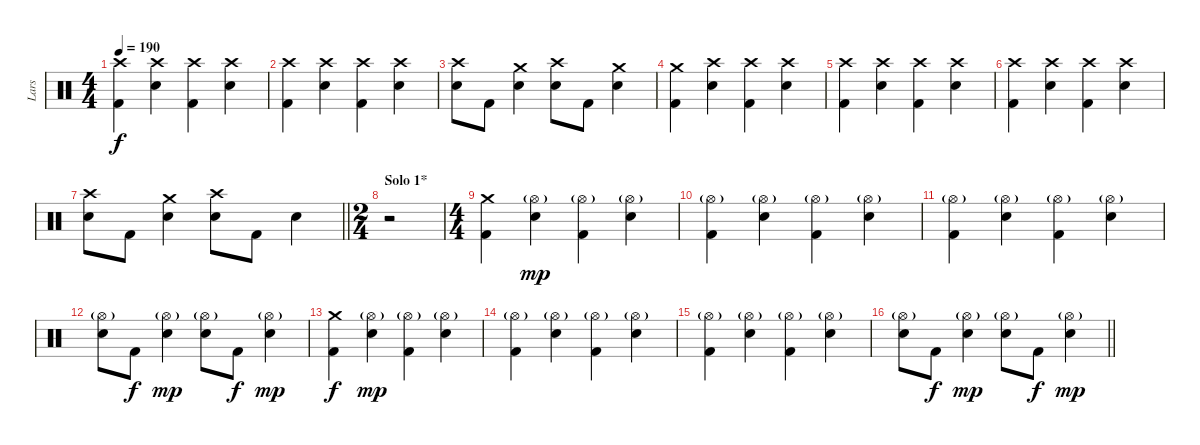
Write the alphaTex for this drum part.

\track ("Lars" "Lars") {instrument percussion}
\staff {score}
\articulation defaults
\ts (4 4)
\tempo 190
\clef neutral
\ks c
("Crash high (hit)" "Kick (hit) 2").4{dy f} ("Crash high (hit)" "Electric Snare (hit)").4 ("Crash high (hit)" "Kick (hit) 2").4 ("Crash high (hit)" "Electric Snare (hit)").4 |
("Crash high (hit)" "Kick (hit) 2").4 ("Crash high (hit)" "Electric Snare (hit)").4 ("Crash high (hit)" "Kick (hit) 2").4 ("Crash high (hit)" "Electric Snare (hit)").4 |
("Crash high (hit)" "Electric Snare (hit)").8 "Kick (hit) 2".8 ("Crash medium (hit)" "Electric Snare (hit)").4 ("Crash high (hit)" "Electric Snare (hit)").8 "Kick (hit) 2".8 ("Crash medium (hit)" "Electric Snare (hit)").4 |
("Crash medium (hit)" "Kick (hit) 2").4 ("Crash high (hit)" "Electric Snare (hit)").4 ("Crash high (hit)" "Kick (hit) 2").4 ("Crash high (hit)" "Electric Snare (hit)").4 |
("Crash high (hit)" "Kick (hit) 2").4 ("Crash high (hit)" "Electric Snare (hit)").4 ("Crash high (hit)" "Kick (hit) 2").4 ("Crash high (hit)" "Electric Snare (hit)").4 |
("Crash high (hit)" "Kick (hit) 2").4 ("Crash high (hit)" "Electric Snare (hit)").4 ("Crash high (hit)" "Kick (hit) 2").4 ("Crash high (hit)" "Electric Snare (hit)").4 |
\barLineRight lightlight
("Crash high (hit)" "Electric Snare (hit)").8 "Kick (hit) 2".8 ("Crash medium (hit)" "Electric Snare (hit)").4 ("Crash high (hit)" "Electric Snare (hit)").8 "Kick (hit) 2".8 "Electric Snare (hit)".4 |
\ts (2 4)
\section ("" "Solo 1*")
r.2 |
\ts (4 4)
("Crash medium (hit)" "Kick (hit) 2").4 ("Hi-Hat (open)"{g} "Electric Snare (hit)").4{dy mp} ("Hi-Hat (open)"{g} "Kick (hit) 2").4 ("Hi-Hat (open)"{g} "Electric Snare (hit)").4 |
("Hi-Hat (open)"{g} "Kick (hit) 2").4 ("Hi-Hat (open)"{g} "Electric Snare (hit)").4 ("Hi-Hat (open)"{g} "Kick (hit) 2").4 ("Hi-Hat (open)"{g} "Electric Snare (hit)").4 |
("Hi-Hat (open)"{g} "Kick (hit) 2").4 ("Hi-Hat (open)"{g} "Electric Snare (hit)").4 ("Hi-Hat (open)"{g} "Kick (hit) 2").4 ("Hi-Hat (open)"{g} "Electric Snare (hit)").4 |
("Hi-Hat (open)"{g} "Electric Snare (hit)").8 "Kick (hit) 2".8{dy f} ("Hi-Hat (open)"{g} "Electric Snare (hit)").4{dy mp} ("Hi-Hat (open)"{g} "Electric Snare (hit)").8 "Kick (hit) 2".8{dy f} ("Hi-Hat (open)"{g} "Electric Snare (hit)").4{dy mp} |
("Crash medium (hit)" "Kick (hit) 2").4{dy f} ("Hi-Hat (open)"{g} "Electric Snare (hit)").4{dy mp} ("Hi-Hat (open)"{g} "Kick (hit) 2").4 ("Hi-Hat (open)"{g} "Electric Snare (hit)").4 |
("Hi-Hat (open)"{g} "Kick (hit) 2").4 ("Hi-Hat (open)"{g} "Electric Snare (hit)").4 ("Hi-Hat (open)"{g} "Kick (hit) 2").4 ("Hi-Hat (open)"{g} "Electric Snare (hit)").4 |
("Hi-Hat (open)"{g} "Kick (hit) 2").4 ("Hi-Hat (open)"{g} "Electric Snare (hit)").4 ("Hi-Hat (open)"{g} "Kick (hit) 2").4 ("Hi-Hat (open)"{g} "Electric Snare (hit)").4 |
\barLineRight lightlight
("Hi-Hat (open)"{g} "Electric Snare (hit)").8 "Kick (hit) 2".8{dy f} ("Hi-Hat (open)"{g} "Electric Snare (hit)").4{dy mp} ("Hi-Hat (open)"{g} "Electric Snare (hit)").8 "Kick (hit) 2".8{dy f} ("Hi-Hat (open)"{g} "Electric Snare (hit)").4{dy mp}
